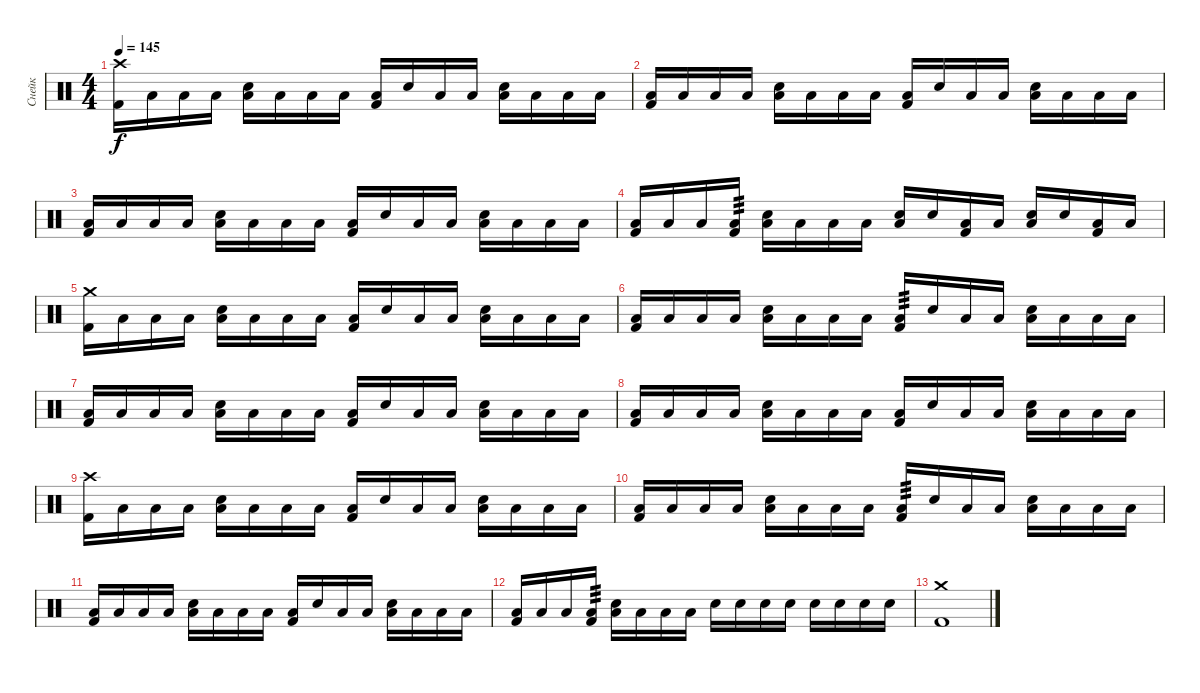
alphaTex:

\track ("Снейк" "Снейк") {instrument percussion}
\staff {score}
\articulation defaults
\ts (4 4)
\tempo 145
\clef neutral
\ks c
("Crash high (hit)" "Kick (hit) 2").16{dy f} "Low Tom (hit)".16 "Low Floor Tom (hit)".16 "Low Tom (hit)".16 ("Low Floor Tom (hit)" "Electric Snare (hit)").16 "Low Tom (hit)".16 "Low Floor Tom (hit)".16 "Low Tom (hit)".16 ("Low Floor Tom (hit)" "Kick (hit) 2").16 "Electric Snare (hit)".16 "Low Floor Tom (hit)".16 "Low Tom (hit)".16 ("Low Floor Tom (hit)" "Electric Snare (hit)").16 "Low Tom (hit)".16 "Low Floor Tom (hit)".16 "Low Tom (hit)".16 |
("Low Floor Tom (hit)" "Kick (hit) 2").16 "Low Tom (hit)".16 "Low Floor Tom (hit)".16 "Low Tom (hit)".16 ("Low Floor Tom (hit)" "Electric Snare (hit)").16 "Low Tom (hit)".16 "Low Floor Tom (hit)".16 "Low Tom (hit)".16 ("Low Floor Tom (hit)" "Kick (hit) 2").16 "Electric Snare (hit)".16 "Low Floor Tom (hit)".16 "Low Tom (hit)".16 ("Low Floor Tom (hit)" "Electric Snare (hit)").16 "Low Tom (hit)".16 "Low Floor Tom (hit)".16 "Low Tom (hit)".16 |
("Low Floor Tom (hit)" "Kick (hit) 2").16 "Low Tom (hit)".16 "Low Floor Tom (hit)".16 "Low Tom (hit)".16 ("Low Floor Tom (hit)" "Electric Snare (hit)").16 "Low Tom (hit)".16 "Low Floor Tom (hit)".16 "Low Tom (hit)".16 ("Low Floor Tom (hit)" "Kick (hit) 2").16 "Electric Snare (hit)".16 "Low Floor Tom (hit)".16 "Low Tom (hit)".16 ("Low Floor Tom (hit)" "Electric Snare (hit)").16 "Low Tom (hit)".16 "Low Floor Tom (hit)".16 "Low Tom (hit)".16 |
("Low Floor Tom (hit)" "Kick (hit) 2").16 "Low Tom (hit)".16 "Low Floor Tom (hit)".16 ("Low Tom (hit)" "Kick (hit) 2").16{tp 3} ("Low Floor Tom (hit)" "Electric Snare (hit)").16 "Low Tom (hit)".16 "Low Floor Tom (hit)".16 "Low Tom (hit)".16 ("Low Floor Tom (hit)" "Electric Snare (hit)").16 "Electric Snare (hit)".16 ("Low Floor Tom (hit)" "Kick (hit) 2").16 "Low Tom (hit)".16 ("Low Floor Tom (hit)" "Electric Snare (hit)").16 "Electric Snare (hit)".16 ("Low Floor Tom (hit)" "Kick (hit) 2").16 "Low Tom (hit)".16 |
("Crash medium (hit)" "Kick (hit) 2").16 "Low Tom (hit)".16 "Low Floor Tom (hit)".16 "Low Tom (hit)".16 ("Low Floor Tom (hit)" "Electric Snare (hit)").16 "Low Tom (hit)".16 "Low Floor Tom (hit)".16 "Low Tom (hit)".16 ("Low Floor Tom (hit)" "Kick (hit) 2").16 "Electric Snare (hit)".16 "Low Floor Tom (hit)".16 "Low Tom (hit)".16 ("Low Floor Tom (hit)" "Electric Snare (hit)").16 "Low Tom (hit)".16 "Low Floor Tom (hit)".16 "Low Tom (hit)".16 |
("Low Floor Tom (hit)" "Kick (hit) 2").16 "Low Tom (hit)".16 "Low Floor Tom (hit)".16 "Low Tom (hit)".16 ("Low Floor Tom (hit)" "Electric Snare (hit)").16 "Low Tom (hit)".16 "Low Floor Tom (hit)".16 "Low Tom (hit)".16 ("Low Floor Tom (hit)" "Kick (hit) 2").16{tp 3} "Electric Snare (hit)".16 "Low Floor Tom (hit)".16 "Low Tom (hit)".16 ("Low Floor Tom (hit)" "Electric Snare (hit)").16 "Low Tom (hit)".16 "Low Floor Tom (hit)".16 "Low Tom (hit)".16 |
("Low Floor Tom (hit)" "Kick (hit) 2").16 "Low Tom (hit)".16 "Low Floor Tom (hit)".16 "Low Tom (hit)".16 ("Low Floor Tom (hit)" "Electric Snare (hit)").16 "Low Tom (hit)".16 "Low Floor Tom (hit)".16 "Low Tom (hit)".16 ("Low Floor Tom (hit)" "Kick (hit) 2").16 "Electric Snare (hit)".16 "Low Floor Tom (hit)".16 "Low Tom (hit)".16 ("Low Floor Tom (hit)" "Electric Snare (hit)").16 "Low Tom (hit)".16 "Low Floor Tom (hit)".16 "Low Tom (hit)".16 |
("Low Floor Tom (hit)" "Kick (hit) 2").16 "Low Tom (hit)".16 "Low Floor Tom (hit)".16 "Low Tom (hit)".16 ("Low Floor Tom (hit)" "Electric Snare (hit)").16 "Low Tom (hit)".16 "Low Floor Tom (hit)".16 "Low Tom (hit)".16 ("Low Floor Tom (hit)" "Kick (hit) 2").16 "Electric Snare (hit)".16 "Low Floor Tom (hit)".16 "Low Tom (hit)".16 ("Low Floor Tom (hit)" "Electric Snare (hit)").16 "Low Tom (hit)".16 "Low Floor Tom (hit)".16 "Low Tom (hit)".16 |
("Crash high (hit)" "Kick (hit) 2").16 "Low Tom (hit)".16 "Low Floor Tom (hit)".16 "Low Tom (hit)".16 ("Low Floor Tom (hit)" "Electric Snare (hit)").16 "Low Tom (hit)".16 "Low Floor Tom (hit)".16 "Low Tom (hit)".16 ("Low Floor Tom (hit)" "Kick (hit) 2").16 "Electric Snare (hit)".16 "Low Floor Tom (hit)".16 "Low Tom (hit)".16 ("Low Floor Tom (hit)" "Electric Snare (hit)").16 "Low Tom (hit)".16 "Low Floor Tom (hit)".16 "Low Tom (hit)".16 |
("Low Floor Tom (hit)" "Kick (hit) 2").16 "Low Tom (hit)".16 "Low Floor Tom (hit)".16 "Low Tom (hit)".16 ("Low Floor Tom (hit)" "Electric Snare (hit)").16 "Low Tom (hit)".16 "Low Floor Tom (hit)".16 "Low Tom (hit)".16 ("Low Floor Tom (hit)" "Kick (hit) 2").16{tp 3} "Electric Snare (hit)".16 "Low Floor Tom (hit)".16 "Low Tom (hit)".16 ("Low Floor Tom (hit)" "Electric Snare (hit)").16 "Low Tom (hit)".16 "Low Floor Tom (hit)".16 "Low Tom (hit)".16 |
("Low Floor Tom (hit)" "Kick (hit) 2").16 "Low Tom (hit)".16 "Low Floor Tom (hit)".16 "Low Tom (hit)".16 ("Low Floor Tom (hit)" "Electric Snare (hit)").16 "Low Tom (hit)".16 "Low Floor Tom (hit)".16 "Low Tom (hit)".16 ("Low Floor Tom (hit)" "Kick (hit) 2").16 "Electric Snare (hit)".16 "Low Floor Tom (hit)".16 "Low Tom (hit)".16 ("Low Floor Tom (hit)" "Electric Snare (hit)").16 "Low Tom (hit)".16 "Low Floor Tom (hit)".16 "Low Tom (hit)".16 |
("Low Floor Tom (hit)" "Kick (hit) 2").16 "Low Tom (hit)".16 "Low Floor Tom (hit)".16 ("Low Tom (hit)" "Kick (hit) 2").16{tp 3} ("Low Floor Tom (hit)" "Electric Snare (hit)").16 "Low Tom (hit)".16 "Low Floor Tom (hit)".16 "Low Tom (hit)".16 "Electric Snare (hit)".16 "Electric Snare (hit)".16 "Electric Snare (hit)".16 "Electric Snare (hit)".16 "Electric Snare (hit)".16 "Electric Snare (hit)".16 "Electric Snare (hit)".16 "Electric Snare (hit)".16 |
("Crash medium (hit)" "Kick (hit) 2").1
